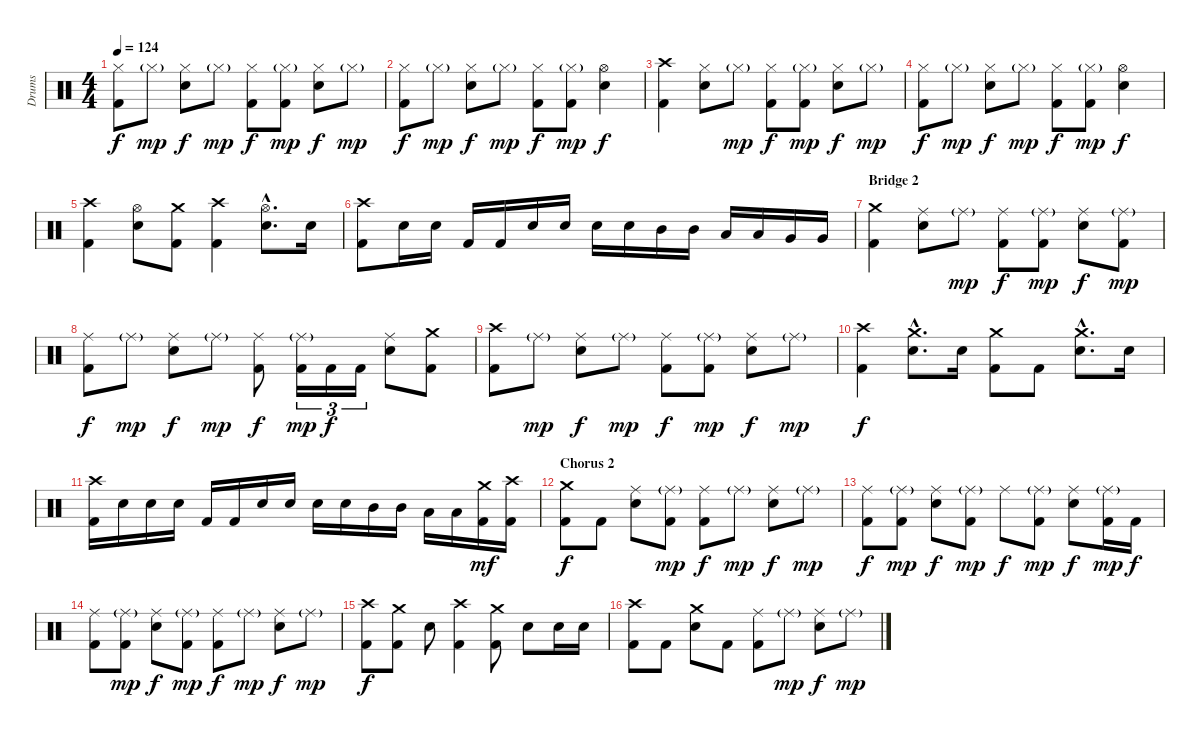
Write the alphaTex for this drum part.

\track ("Drums" "Drums") {instrument percussion}
\staff {score}
\articulation defaults
\ts (4 4)
\tempo 124
\clef neutral
\ks c
("Hi-Hat (closed)" "Kick (hit) 2").8{dy f} "Hi-Hat (closed)"{g}.8{dy mp} ("Hi-Hat (closed)" "Snare (hit) 2").8{dy f} "Hi-Hat (closed)"{g}.8{dy mp} ("Hi-Hat (closed)" "Kick (hit) 2").8{dy f} ("Hi-Hat (closed)"{g} "Kick (hit) 2").8{dy mp} ("Hi-Hat (closed)" "Snare (hit) 2").8{dy f} "Hi-Hat (closed)"{g}.8{dy mp} |
("Hi-Hat (closed)" "Kick (hit) 2").8{dy f} "Hi-Hat (closed)"{g}.8{dy mp} ("Hi-Hat (closed)" "Snare (hit) 2").8{dy f} "Hi-Hat (closed)"{g}.8{dy mp} ("Hi-Hat (closed)" "Kick (hit) 2").8{dy f} ("Hi-Hat (closed)"{g} "Kick (hit) 2").8{dy mp} ("Hi-Hat (open)" "Snare (hit) 2").4{dy f} |
("Crash high (hit)" "Kick (hit) 2").4 ("Hi-Hat (closed)" "Snare (hit) 2").8 "Hi-Hat (closed)"{g}.8{dy mp} ("Hi-Hat (closed)" "Kick (hit) 2").8{dy f} ("Hi-Hat (closed)"{g} "Kick (hit) 2").8{dy mp} ("Hi-Hat (closed)" "Snare (hit) 2").8{dy f} "Hi-Hat (closed)"{g}.8{dy mp} |
("Hi-Hat (closed)" "Kick (hit) 2").8{dy f} "Hi-Hat (closed)"{g}.8{dy mp} ("Hi-Hat (closed)" "Snare (hit) 2").8{dy f} "Hi-Hat (closed)"{g}.8{dy mp} ("Hi-Hat (closed)" "Kick (hit) 2").8{dy f} ("Hi-Hat (closed)"{g} "Kick (hit) 2").8{dy mp} ("Hi-Hat (open)" "Snare (hit) 2").4{dy f} |
("Crash high (hit)" "Kick (hit) 2").4 ("Hi-Hat (open)" "Snare (hit) 2").8 ("Crash medium (hit)" "Kick (hit) 2").8 ("Crash high (hit)" "Kick (hit) 2").4 ("Hi-Hat (open)"{hac} "Snare (hit) 2"{hac}).8{d} "Snare (hit) 2".16 |
("Crash high (hit)" "Kick (hit) 2").8 "Snare (hit) 2".16 "Snare (hit) 2".16 "Kick (hit) 2".16 "Kick (hit) 2".16 "Snare (hit) 2".16 "Snare (hit) 2".16 "Snare (hit) 2".16 "Snare (hit) 2".16 "Mid Tom (hit)".16 "Mid Tom (hit)".16 "Low Tom (hit)".16 "Low Tom (hit)".16 "Very Low Tom (hit)".16 "Very Low Tom (hit)".16 |
\section ("" "Bridge 2")
("Crash medium (hit)" "Kick (hit) 2").4 ("Ride (middle)" "Snare (hit) 2").8 "Ride (middle)"{g}.8{dy mp} ("Ride (middle)" "Kick (hit) 2").8{dy f} ("Ride (middle)"{g} "Kick (hit) 2").8{dy mp} ("Ride (middle)" "Snare (hit) 2").8{dy f} ("Ride (middle)"{g} "Kick (hit) 2").8{dy mp} |
("Ride (middle)" "Kick (hit) 2").8{dy f} "Ride (middle)"{g}.8{dy mp} ("Ride (middle)" "Snare (hit) 2").8{dy f} "Ride (middle)"{g}.8{dy mp} ("Ride (middle)" "Kick (hit) 2").8{dy f} ("Ride (middle)"{g} "Kick (hit) 2").16{tu (3 2) dy mp} "Kick (hit) 2".16{tu (3 2) dy f} "Kick (hit) 2".16{tu (3 2)} ("Ride (middle)" "Snare (hit) 2").8 ("Crash medium (hit)" "Kick (hit) 2").8 |
("Crash high (hit)" "Kick (hit) 2").8 "Ride (middle)"{g}.8{dy mp} ("Ride (middle)" "Snare (hit) 2").8{dy f} "Ride (middle)"{g}.8{dy mp} ("Ride (middle)" "Kick (hit) 2").8{dy f} ("Ride (middle)"{g} "Kick (hit) 2").8{dy mp} ("Ride (middle)" "Snare (hit) 2").8{dy f} "Ride (middle)"{g}.8{dy mp} |
("Crash high (hit)" "Kick (hit) 2").4{dy f} ("Crash medium (hit)"{hac} "Snare (hit) 2"{hac}).8{d} "Snare (hit) 2".16 ("Crash medium (hit)" "Kick (hit) 2").8 "Kick (hit) 2".8 ("Crash medium (hit)"{hac} "Snare (hit) 2"{hac}).8{d} "Snare (hit) 2".16 |
("Crash high (hit)" "Kick (hit) 2").16 "Snare (hit) 2".16 "Snare (hit) 2".16 "Snare (hit) 2".16 "Kick (hit) 2".16 "Kick (hit) 2".16 "Snare (hit) 2".16 "Snare (hit) 2".16 "Snare (hit) 2".16 "Snare (hit) 2".16 "Mid Tom (hit)".16 "Mid Tom (hit)".16 "Low Tom (hit)".16 "Low Tom (hit)".16 ("Crash medium (hit)" "Kick (hit) 2").16{dy mf} ("Crash high (hit)" "Kick (hit) 2").16 |
\section ("" "Chorus 2")
("Crash medium (hit)" "Kick (hit) 2").8{dy f} "Kick (hit) 2".8 ("Ride (middle)" "Snare (hit) 2").8 ("Ride (middle)"{g} "Kick (hit) 2").8{dy mp} ("Ride (middle)" "Kick (hit) 2").8{dy f} "Ride (middle)"{g}.8{dy mp} ("Ride (middle)" "Snare (hit) 2").8{dy f} "Ride (middle)"{g}.8{dy mp} |
("Ride (middle)" "Kick (hit) 2").8{dy f} ("Ride (middle)"{g} "Kick (hit) 2").8{dy mp} ("Ride (middle)" "Snare (hit) 2").8{dy f} ("Ride (middle)"{g} "Kick (hit) 2").8{dy mp} "Ride (middle)".8{dy f} ("Ride (middle)"{g} "Kick (hit) 2").8{dy mp} ("Ride (middle)" "Snare (hit) 2").8{dy f} ("Ride (middle)"{g} "Kick (hit) 2").16{dy mp} "Kick (hit) 2".16{dy f} |
("Ride (middle)" "Kick (hit) 2").8 ("Ride (middle)"{g} "Kick (hit) 2").8{dy mp} ("Ride (middle)" "Snare (hit) 2").8{dy f} ("Ride (middle)"{g} "Kick (hit) 2").8{dy mp} ("Ride (middle)" "Kick (hit) 2").8{dy f} "Ride (middle)"{g}.8{dy mp} ("Ride (middle)" "Snare (hit) 2").8{dy f} "Ride (middle)"{g}.8{dy mp} |
("Crash high (hit)" "Kick (hit) 2").8{dy f} ("Crash medium (hit)" "Kick (hit) 2").8 "Snare (hit) 2".8 ("Crash high (hit)" "Kick (hit) 2").4 ("Crash medium (hit)" "Kick (hit) 2").8 "Snare (hit) 2".8 "Snare (hit) 2".16 "Snare (hit) 2".16 |
("Crash high (hit)" "Kick (hit) 2").8 "Kick (hit) 2".8 ("Crash medium (hit)" "Snare (hit) 2").8 "Kick (hit) 2".8 ("Ride (middle)" "Kick (hit) 2").8 "Ride (middle)"{g}.8{dy mp} ("Ride (middle)" "Snare (hit) 2").8{dy f} "Ride (middle)"{g}.8{dy mp}
